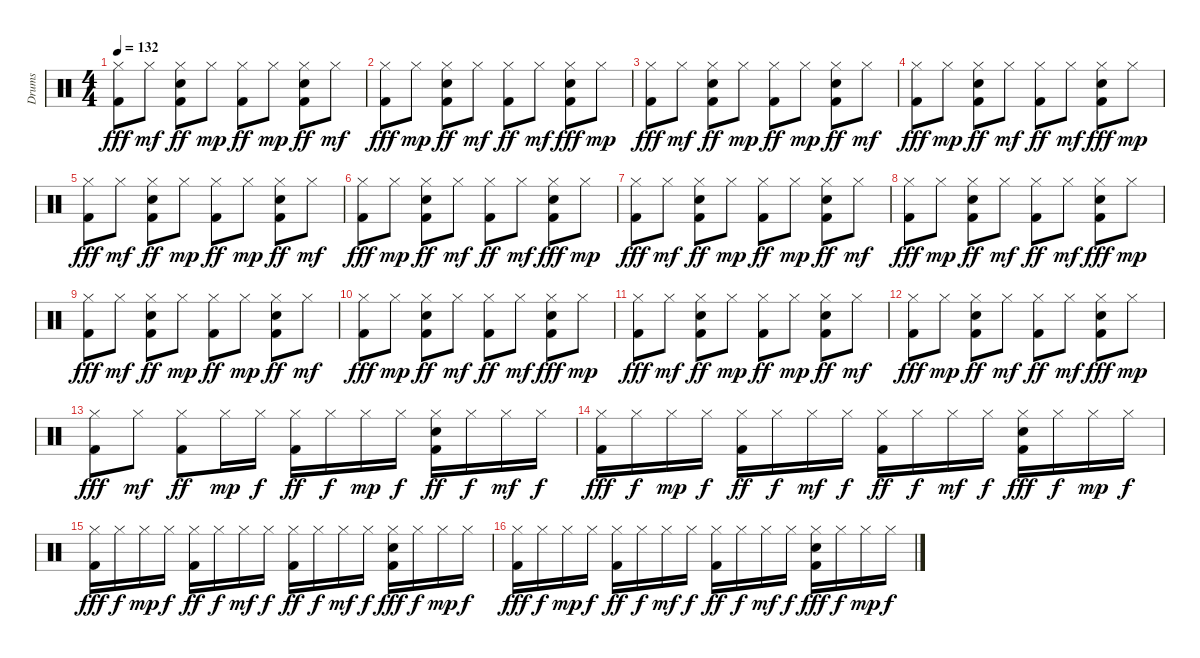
\track ("Drums" "Drums") {instrument percussion}
\staff {score}
\articulation defaults
\ts (4 4)
\tempo 132
\clef neutral
\ks c
("Hi-Hat (closed)" "Kick (hit) 2").8{dy fff} "Hi-Hat (closed)".8{dy mf} ("Kick (hit) 2" "Hi-Hat (closed)" "Snare (hit) 2").8{dy ff} "Hi-Hat (closed)".8{dy mp} ("Hi-Hat (closed)" "Kick (hit) 2").8{dy ff} "Hi-Hat (closed)".8{dy mp} ("Snare (hit) 2" "Kick (hit) 2" "Hi-Hat (closed)").8{dy ff} "Hi-Hat (closed)".8{dy mf} |
("Kick (hit) 2" "Hi-Hat (closed)").8{dy fff} "Hi-Hat (closed)".8{dy mp} ("Snare (hit) 2" "Hi-Hat (closed)" "Kick (hit) 2").8{dy ff} "Hi-Hat (closed)".8{dy mf} ("Hi-Hat (closed)" "Kick (hit) 2").8{dy ff} "Hi-Hat (closed)".8{dy mf} ("Kick (hit) 2" "Snare (hit) 2" "Hi-Hat (closed)").8{dy fff} "Hi-Hat (closed)".8{dy mp} |
("Hi-Hat (closed)" "Kick (hit) 2").8{dy fff} "Hi-Hat (closed)".8{dy mf} ("Hi-Hat (closed)" "Snare (hit) 2" "Kick (hit) 2").8{dy ff} "Hi-Hat (closed)".8{dy mp} ("Kick (hit) 2" "Hi-Hat (closed)").8{dy ff} "Hi-Hat (closed)".8{dy mp} ("Kick (hit) 2" "Hi-Hat (closed)" "Snare (hit) 2").8{dy ff} "Hi-Hat (closed)".8{dy mf} |
("Kick (hit) 2" "Hi-Hat (closed)").8{dy fff} "Hi-Hat (closed)".8{dy mp} ("Kick (hit) 2" "Snare (hit) 2" "Hi-Hat (closed)").8{dy ff} "Hi-Hat (closed)".8{dy mf} ("Kick (hit) 2" "Hi-Hat (closed)").8{dy ff} "Hi-Hat (closed)".8{dy mf} ("Kick (hit) 2" "Hi-Hat (closed)" "Snare (hit) 2").8{dy fff} "Hi-Hat (closed)".8{dy mp} |
("Kick (hit) 2" "Hi-Hat (closed)").8{dy fff} "Hi-Hat (closed)".8{dy mf} ("Snare (hit) 2" "Kick (hit) 2" "Hi-Hat (closed)").8{dy ff} "Hi-Hat (closed)".8{dy mp} ("Kick (hit) 2" "Hi-Hat (closed)").8{dy ff} "Hi-Hat (closed)".8{dy mp} ("Hi-Hat (closed)" "Kick (hit) 2" "Snare (hit) 2").8{dy ff} "Hi-Hat (closed)".8{dy mf} |
("Hi-Hat (closed)" "Kick (hit) 2").8{dy fff} "Hi-Hat (closed)".8{dy mp} ("Snare (hit) 2" "Kick (hit) 2" "Hi-Hat (closed)").8{dy ff} "Hi-Hat (closed)".8{dy mf} ("Kick (hit) 2" "Hi-Hat (closed)").8{dy ff} "Hi-Hat (closed)".8{dy mf} ("Snare (hit) 2" "Hi-Hat (closed)" "Kick (hit) 2").8{dy fff} "Hi-Hat (closed)".8{dy mp} |
("Hi-Hat (closed)" "Kick (hit) 2").8{dy fff} "Hi-Hat (closed)".8{dy mf} ("Snare (hit) 2" "Kick (hit) 2" "Hi-Hat (closed)").8{dy ff} "Hi-Hat (closed)".8{dy mp} ("Hi-Hat (closed)" "Kick (hit) 2").8{dy ff} "Hi-Hat (closed)".8{dy mp} ("Snare (hit) 2" "Hi-Hat (closed)" "Kick (hit) 2").8{dy ff} "Hi-Hat (closed)".8{dy mf} |
("Hi-Hat (closed)" "Kick (hit) 2").8{dy fff} "Hi-Hat (closed)".8{dy mp} ("Hi-Hat (closed)" "Snare (hit) 2" "Kick (hit) 2").8{dy ff} "Hi-Hat (closed)".8{dy mf} ("Hi-Hat (closed)" "Kick (hit) 2").8{dy ff} "Hi-Hat (closed)".8{dy mf} ("Snare (hit) 2" "Hi-Hat (closed)" "Kick (hit) 2").8{dy fff} "Hi-Hat (closed)".8{dy mp} |
("Hi-Hat (closed)" "Kick (hit) 2").8{dy fff} "Hi-Hat (closed)".8{dy mf} ("Hi-Hat (closed)" "Snare (hit) 2" "Kick (hit) 2").8{dy ff} "Hi-Hat (closed)".8{dy mp} ("Hi-Hat (closed)" "Kick (hit) 2").8{dy ff} "Hi-Hat (closed)".8{dy mp} ("Hi-Hat (closed)" "Kick (hit) 2" "Snare (hit) 2").8{dy ff} "Hi-Hat (closed)".8{dy mf} |
("Hi-Hat (closed)" "Kick (hit) 2").8{dy fff} "Hi-Hat (closed)".8{dy mp} ("Hi-Hat (closed)" "Snare (hit) 2" "Kick (hit) 2").8{dy ff} "Hi-Hat (closed)".8{dy mf} ("Hi-Hat (closed)" "Kick (hit) 2").8{dy ff} "Hi-Hat (closed)".8{dy mf} ("Kick (hit) 2" "Snare (hit) 2" "Hi-Hat (closed)").8{dy fff} "Hi-Hat (closed)".8{dy mp} |
("Hi-Hat (closed)" "Kick (hit) 2").8{dy fff} "Hi-Hat (closed)".8{dy mf} ("Kick (hit) 2" "Snare (hit) 2" "Hi-Hat (closed)").8{dy ff} "Hi-Hat (closed)".8{dy mp} ("Kick (hit) 2" "Hi-Hat (closed)").8{dy ff} "Hi-Hat (closed)".8{dy mp} ("Hi-Hat (closed)" "Snare (hit) 2" "Kick (hit) 2").8{dy ff} "Hi-Hat (closed)".8{dy mf} |
("Hi-Hat (closed)" "Kick (hit) 2").8{dy fff} "Hi-Hat (closed)".8{dy mp} ("Hi-Hat (closed)" "Snare (hit) 2" "Kick (hit) 2").8{dy ff} "Hi-Hat (closed)".8{dy mf} ("Hi-Hat (closed)" "Kick (hit) 2").8{dy ff} "Hi-Hat (closed)".8{dy mf} ("Kick (hit) 2" "Snare (hit) 2" "Hi-Hat (closed)").8{dy fff} "Hi-Hat (closed)".8{dy mp} |
("Kick (hit) 2" "Hi-Hat (closed)").8{dy fff} "Hi-Hat (closed)".8{dy mf} ("Kick (hit) 2" "Hi-Hat (closed)").8{dy ff} "Hi-Hat (closed)".16{dy mp} "Hi-Hat (closed)".16{dy f} ("Kick (hit) 2" "Hi-Hat (closed)").16{dy ff} "Hi-Hat (closed)".16{dy f} "Hi-Hat (closed)".16{dy mp} "Hi-Hat (closed)".16{dy f} ("Kick (hit) 2" "Hi-Hat (closed)" "Snare (hit) 2").16{dy ff} "Hi-Hat (closed)".16{dy f} "Hi-Hat (closed)".16{dy mf} "Hi-Hat (closed)".16{dy f} |
("Hi-Hat (closed)" "Kick (hit) 2").16{dy fff} "Hi-Hat (closed)".16{dy f} "Hi-Hat (closed)".16{dy mp} "Hi-Hat (closed)".16{dy f} ("Hi-Hat (closed)" "Kick (hit) 2").16{dy ff} "Hi-Hat (closed)".16{dy f} "Hi-Hat (closed)".16{dy mf} "Hi-Hat (closed)".16{dy f} ("Kick (hit) 2" "Hi-Hat (closed)").16{dy ff} "Hi-Hat (closed)".16{dy f} "Hi-Hat (closed)".16{dy mf} "Hi-Hat (closed)".16{dy f} ("Hi-Hat (closed)" "Kick (hit) 2" "Snare (hit) 2").16{dy fff} "Hi-Hat (closed)".16{dy f} "Hi-Hat (closed)".16{dy mp} "Hi-Hat (closed)".16{dy f} |
("Hi-Hat (closed)" "Kick (hit) 2").16{dy fff} "Hi-Hat (closed)".16{dy f} "Hi-Hat (closed)".16{dy mp} "Hi-Hat (closed)".16{dy f} ("Hi-Hat (closed)" "Kick (hit) 2").16{dy ff} "Hi-Hat (closed)".16{dy f} "Hi-Hat (closed)".16{dy mf} "Hi-Hat (closed)".16{dy f} ("Kick (hit) 2" "Hi-Hat (closed)").16{dy ff} "Hi-Hat (closed)".16{dy f} "Hi-Hat (closed)".16{dy mf} "Hi-Hat (closed)".16{dy f} ("Hi-Hat (closed)" "Kick (hit) 2" "Snare (hit) 2").16{dy fff} "Hi-Hat (closed)".16{dy f} "Hi-Hat (closed)".16{dy mp} "Hi-Hat (closed)".16{dy f} |
("Hi-Hat (closed)" "Kick (hit) 2").16{dy fff} "Hi-Hat (closed)".16{dy f} "Hi-Hat (closed)".16{dy mp} "Hi-Hat (closed)".16{dy f} ("Hi-Hat (closed)" "Kick (hit) 2").16{dy ff} "Hi-Hat (closed)".16{dy f} "Hi-Hat (closed)".16{dy mf} "Hi-Hat (closed)".16{dy f} ("Kick (hit) 2" "Hi-Hat (closed)").16{dy ff} "Hi-Hat (closed)".16{dy f} "Hi-Hat (closed)".16{dy mf} "Hi-Hat (closed)".16{dy f} ("Hi-Hat (closed)" "Kick (hit) 2" "Snare (hit) 2").16{dy fff} "Hi-Hat (closed)".16{dy f} "Hi-Hat (closed)".16{dy mp} "Hi-Hat (closed)".16{dy f}
